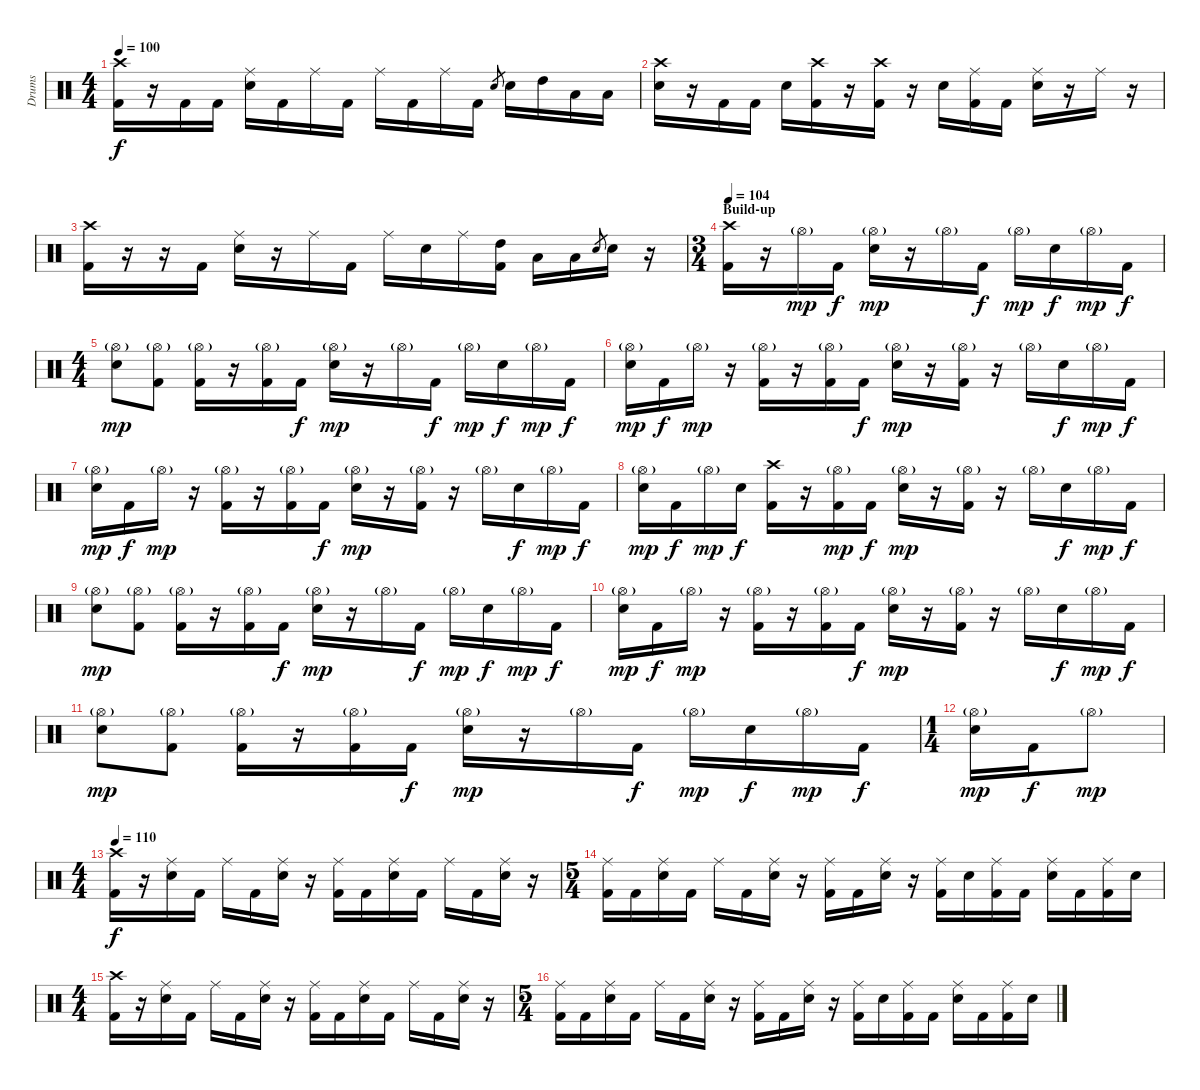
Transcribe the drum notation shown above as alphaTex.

\track ("Drums" "Drums") {instrument percussion}
\staff {score}
\articulation defaults
\ts (4 4)
\tempo 100
\clef neutral
\ks c
("Crash high (hit)" "Kick (hit) 2").16{dy f} r.16 "Kick (hit) 2".16 "Kick (hit) 2".16 ("Ride (middle)" "Electric Snare (hit)").16 "Kick (hit) 2".16 "Ride (middle)".16 "Kick (hit) 2".16 "Ride (middle)".16 "Kick (hit) 2".16 "Ride (middle)".16 "Kick (hit) 2".16 "Electric Snare (hit)".8{gr} "Electric Snare (hit)".16 "High Tom (hit)".16 "Low Tom (hit)".16 "Low Tom (hit)".16 |
("Crash high (hit)" "Electric Snare (hit)").16 r.16 "Kick (hit) 2".16 "Kick (hit) 2".16 "Electric Snare (hit)".16 ("Crash high (hit)" "Kick (hit) 2").16 r.16 ("Crash high (hit)" "Kick (hit) 2").16 r.16 "Electric Snare (hit)".16 ("Ride (middle)" "Kick (hit) 2").16 "Kick (hit) 2".16 ("Ride (middle)" "Electric Snare (hit)").16 r.16 "Ride (middle)".16 r.16 |
("Crash high (hit)" "Kick (hit) 2").16 r.16 r.16 "Kick (hit) 2".16 ("Ride (middle)" "Electric Snare (hit)").16 r.16 "Ride (middle)".16 "Kick (hit) 2".16 "Ride (middle)".16 "Electric Snare (hit)".16 "Ride (middle)".16 ("High Tom (hit)" "Kick (hit) 2").16 "Low Tom (hit)".16 "Low Tom (hit)".16 "Electric Snare (hit)".8{gr} "Electric Snare (hit)".16 r.16 |
\ts (3 4)
\section ("" "Build-up")
\tempo 104
("Crash high (hit)" "Kick (hit) 2").16 r.16 "Hi-Hat (open)"{g}.16{dy mp} "Kick (hit) 2".16{dy f} ("Hi-Hat (open)"{g} "Electric Snare (hit)").16{dy mp} r.16 "Hi-Hat (open)"{g}.16 "Kick (hit) 2".16{dy f} "Hi-Hat (open)"{g}.16{dy mp} "Electric Snare (hit)".16{dy f} "Hi-Hat (open)"{g}.16{dy mp} "Kick (hit) 2".16{dy f} |
\ts (4 4)
("Hi-Hat (open)"{g} "Electric Snare (hit)").8{dy mp} ("Hi-Hat (open)"{g} "Kick (hit) 2").8 ("Hi-Hat (open)"{g} "Kick (hit) 2").16 r.16 ("Hi-Hat (open)"{g} "Kick (hit) 2").16 "Kick (hit) 2".16{dy f} ("Hi-Hat (open)"{g} "Electric Snare (hit)").16{dy mp} r.16 "Hi-Hat (open)"{g}.16 "Kick (hit) 2".16{dy f} "Hi-Hat (open)"{g}.16{dy mp} "Electric Snare (hit)".16{dy f} "Hi-Hat (open)"{g}.16{dy mp} "Kick (hit) 2".16{dy f} |
("Hi-Hat (open)"{g} "Electric Snare (hit)").16{dy mp} "Kick (hit) 2".16{dy f} "Hi-Hat (open)"{g}.16{dy mp} r.16 ("Hi-Hat (open)"{g} "Kick (hit) 2").16 r.16 ("Hi-Hat (open)"{g} "Kick (hit) 2").16 "Kick (hit) 2".16{dy f} ("Hi-Hat (open)"{g} "Electric Snare (hit)").16{dy mp} r.16 ("Hi-Hat (open)"{g} "Kick (hit) 2").16 r.16 "Hi-Hat (open)"{g}.16 "Electric Snare (hit)".16{dy f} "Hi-Hat (open)"{g}.16{dy mp} "Kick (hit) 2".16{dy f} |
("Hi-Hat (open)"{g} "Electric Snare (hit)").16{dy mp} "Kick (hit) 2".16{dy f} "Hi-Hat (open)"{g}.16{dy mp} r.16 ("Hi-Hat (open)"{g} "Kick (hit) 2").16 r.16 ("Hi-Hat (open)"{g} "Kick (hit) 2").16 "Kick (hit) 2".16{dy f} ("Hi-Hat (open)"{g} "Electric Snare (hit)").16{dy mp} r.16 ("Hi-Hat (open)"{g} "Kick (hit) 2").16 r.16 "Hi-Hat (open)"{g}.16 "Electric Snare (hit)".16{dy f} "Hi-Hat (open)"{g}.16{dy mp} "Kick (hit) 2".16{dy f} |
("Hi-Hat (open)"{g} "Electric Snare (hit)").16{dy mp} "Kick (hit) 2".16{dy f} "Hi-Hat (open)"{g}.16{dy mp} "Electric Snare (hit)".16{dy f} ("Crash high (hit)" "Kick (hit) 2").16 r.16 ("Hi-Hat (open)"{g} "Kick (hit) 2").16{dy mp} "Kick (hit) 2".16{dy f} ("Hi-Hat (open)"{g} "Electric Snare (hit)").16{dy mp} r.16 ("Hi-Hat (open)"{g} "Kick (hit) 2").16 r.16 "Hi-Hat (open)"{g}.16 "Electric Snare (hit)".16{dy f} "Hi-Hat (open)"{g}.16{dy mp} "Kick (hit) 2".16{dy f} |
("Hi-Hat (open)"{g} "Electric Snare (hit)").8{dy mp} ("Hi-Hat (open)"{g} "Kick (hit) 2").8 ("Hi-Hat (open)"{g} "Kick (hit) 2").16 r.16 ("Hi-Hat (open)"{g} "Kick (hit) 2").16 "Kick (hit) 2".16{dy f} ("Hi-Hat (open)"{g} "Electric Snare (hit)").16{dy mp} r.16 "Hi-Hat (open)"{g}.16 "Kick (hit) 2".16{dy f} "Hi-Hat (open)"{g}.16{dy mp} "Electric Snare (hit)".16{dy f} "Hi-Hat (open)"{g}.16{dy mp} "Kick (hit) 2".16{dy f} |
("Hi-Hat (open)"{g} "Electric Snare (hit)").16{dy mp} "Kick (hit) 2".16{dy f} "Hi-Hat (open)"{g}.16{dy mp} r.16 ("Hi-Hat (open)"{g} "Kick (hit) 2").16 r.16 ("Hi-Hat (open)"{g} "Kick (hit) 2").16 "Kick (hit) 2".16{dy f} ("Hi-Hat (open)"{g} "Electric Snare (hit)").16{dy mp} r.16 ("Hi-Hat (open)"{g} "Kick (hit) 2").16 r.16 "Hi-Hat (open)"{g}.16 "Electric Snare (hit)".16{dy f} "Hi-Hat (open)"{g}.16{dy mp} "Kick (hit) 2".16{dy f} |
("Hi-Hat (open)"{g} "Electric Snare (hit)").8{dy mp} ("Hi-Hat (open)"{g} "Kick (hit) 2").8 ("Hi-Hat (open)"{g} "Kick (hit) 2").16 r.16 ("Hi-Hat (open)"{g} "Kick (hit) 2").16 "Kick (hit) 2".16{dy f} ("Hi-Hat (open)"{g} "Electric Snare (hit)").16{dy mp} r.16 "Hi-Hat (open)"{g}.16 "Kick (hit) 2".16{dy f} "Hi-Hat (open)"{g}.16{dy mp} "Electric Snare (hit)".16{dy f} "Hi-Hat (open)"{g}.16{dy mp} "Kick (hit) 2".16{dy f} |
\ts (1 4)
("Hi-Hat (open)"{g} "Electric Snare (hit)").16{dy mp} "Kick (hit) 2".16{dy f} "Hi-Hat (open)"{g}.8{dy mp} |
\ts (4 4)
\tempo 110
("Crash high (hit)" "Kick (hit) 2").16{dy f} r.16 ("Ride (middle)" "Electric Snare (hit)").16 "Kick (hit) 2".16 "Ride (middle)".16 "Kick (hit) 2".16 ("Ride (middle)" "Electric Snare (hit)").16 r.16 ("Ride (middle)" "Kick (hit) 2").16 "Kick (hit) 2".16 ("Ride (middle)" "Electric Snare (hit)").16 "Kick (hit) 2".16 "Ride (middle)".16 "Kick (hit) 2".16 ("Ride (middle)" "Electric Snare (hit)").16 r.16 |
\ts (5 4)
("Ride (middle)" "Kick (hit) 2").16 "Kick (hit) 2".16 ("Ride (middle)" "Electric Snare (hit)").16 "Kick (hit) 2".16 "Ride (middle)".16 "Kick (hit) 2".16 ("Ride (middle)" "Electric Snare (hit)").16 r.16 ("Ride (middle)" "Kick (hit) 2").16 "Kick (hit) 2".16 ("Ride (middle)" "Electric Snare (hit)").16 r.16 ("Ride (middle)" "Kick (hit) 2").16 "Electric Snare (hit)".16 ("Ride (middle)" "Kick (hit) 2").16 "Kick (hit) 2".16 ("Ride (middle)" "Electric Snare (hit)").16 "Kick (hit) 2".16 ("Ride (middle)" "Kick (hit) 2").16 "Electric Snare (hit)".16 |
\ts (4 4)
("Crash high (hit)" "Kick (hit) 2").16 r.16 ("Ride (middle)" "Electric Snare (hit)").16 "Kick (hit) 2".16 "Ride (middle)".16 "Kick (hit) 2".16 ("Ride (middle)" "Electric Snare (hit)").16 r.16 ("Ride (middle)" "Kick (hit) 2").16 "Kick (hit) 2".16 ("Ride (middle)" "Electric Snare (hit)").16 "Kick (hit) 2".16 "Ride (middle)".16 "Kick (hit) 2".16 ("Ride (middle)" "Electric Snare (hit)").16 r.16 |
\ts (5 4)
("Ride (middle)" "Kick (hit) 2").16 "Kick (hit) 2".16 ("Ride (middle)" "Electric Snare (hit)").16 "Kick (hit) 2".16 "Ride (middle)".16 "Kick (hit) 2".16 ("Ride (middle)" "Electric Snare (hit)").16 r.16 ("Ride (middle)" "Kick (hit) 2").16 "Kick (hit) 2".16 ("Ride (middle)" "Electric Snare (hit)").16 r.16 ("Ride (middle)" "Kick (hit) 2").16 "Electric Snare (hit)".16 ("Ride (middle)" "Kick (hit) 2").16 "Kick (hit) 2".16 ("Ride (middle)" "Electric Snare (hit)").16 "Kick (hit) 2".16 ("Ride (middle)" "Kick (hit) 2").16 "Electric Snare (hit)".16
